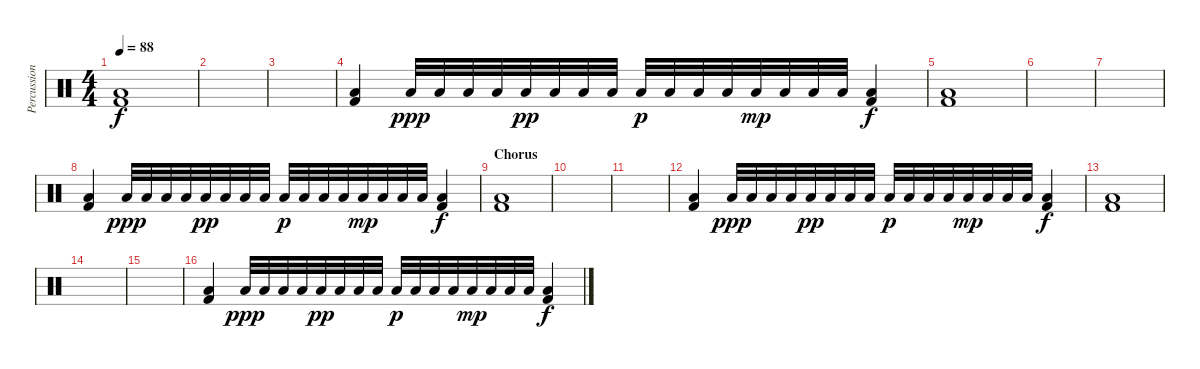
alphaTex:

\track ("Percussion" "Percussion") {instrument percussion}
\staff {score}
\articulation defaults
\ts (4 4)
\tempo 88
\clef neutral
\ks c
("Low Floor Tom (hit)" "Kick (hit) 2").1{dy f} |
|
|
("Low Floor Tom (hit)" "Kick (hit) 2").4 "Low Floor Tom (hit)".32{dy ppp} "Low Floor Tom (hit)".32 "Low Floor Tom (hit)".32 "Low Floor Tom (hit)".32 "Low Floor Tom (hit)".32{dy pp} "Low Floor Tom (hit)".32 "Low Floor Tom (hit)".32 "Low Floor Tom (hit)".32 "Low Floor Tom (hit)".32{dy p} "Low Floor Tom (hit)".32 "Low Floor Tom (hit)".32 "Low Floor Tom (hit)".32 "Low Floor Tom (hit)".32{dy mp} "Low Floor Tom (hit)".32 "Low Floor Tom (hit)".32 "Low Floor Tom (hit)".32 ("Low Floor Tom (hit)" "Kick (hit) 2").4{dy f} |
("Low Floor Tom (hit)" "Kick (hit) 2").1 |
|
|
("Low Floor Tom (hit)" "Kick (hit) 2").4 "Low Floor Tom (hit)".32{dy ppp} "Low Floor Tom (hit)".32 "Low Floor Tom (hit)".32 "Low Floor Tom (hit)".32 "Low Floor Tom (hit)".32{dy pp} "Low Floor Tom (hit)".32 "Low Floor Tom (hit)".32 "Low Floor Tom (hit)".32 "Low Floor Tom (hit)".32{dy p} "Low Floor Tom (hit)".32 "Low Floor Tom (hit)".32 "Low Floor Tom (hit)".32 "Low Floor Tom (hit)".32{dy mp} "Low Floor Tom (hit)".32 "Low Floor Tom (hit)".32 "Low Floor Tom (hit)".32 ("Low Floor Tom (hit)" "Kick (hit) 2").4{dy f} |
\section ("" "Chorus")
("Low Floor Tom (hit)" "Kick (hit) 2").1 |
|
|
("Low Floor Tom (hit)" "Kick (hit) 2").4 "Low Floor Tom (hit)".32{dy ppp} "Low Floor Tom (hit)".32 "Low Floor Tom (hit)".32 "Low Floor Tom (hit)".32 "Low Floor Tom (hit)".32{dy pp} "Low Floor Tom (hit)".32 "Low Floor Tom (hit)".32 "Low Floor Tom (hit)".32 "Low Floor Tom (hit)".32{dy p} "Low Floor Tom (hit)".32 "Low Floor Tom (hit)".32 "Low Floor Tom (hit)".32 "Low Floor Tom (hit)".32{dy mp} "Low Floor Tom (hit)".32 "Low Floor Tom (hit)".32 "Low Floor Tom (hit)".32 ("Low Floor Tom (hit)" "Kick (hit) 2").4{dy f} |
("Low Floor Tom (hit)" "Kick (hit) 2").1 |
|
|
("Low Floor Tom (hit)" "Kick (hit) 2").4 "Low Floor Tom (hit)".32{dy ppp} "Low Floor Tom (hit)".32 "Low Floor Tom (hit)".32 "Low Floor Tom (hit)".32 "Low Floor Tom (hit)".32{dy pp} "Low Floor Tom (hit)".32 "Low Floor Tom (hit)".32 "Low Floor Tom (hit)".32 "Low Floor Tom (hit)".32{dy p} "Low Floor Tom (hit)".32 "Low Floor Tom (hit)".32 "Low Floor Tom (hit)".32 "Low Floor Tom (hit)".32{dy mp} "Low Floor Tom (hit)".32 "Low Floor Tom (hit)".32 "Low Floor Tom (hit)".32 ("Low Floor Tom (hit)" "Kick (hit) 2").4{dy f}
